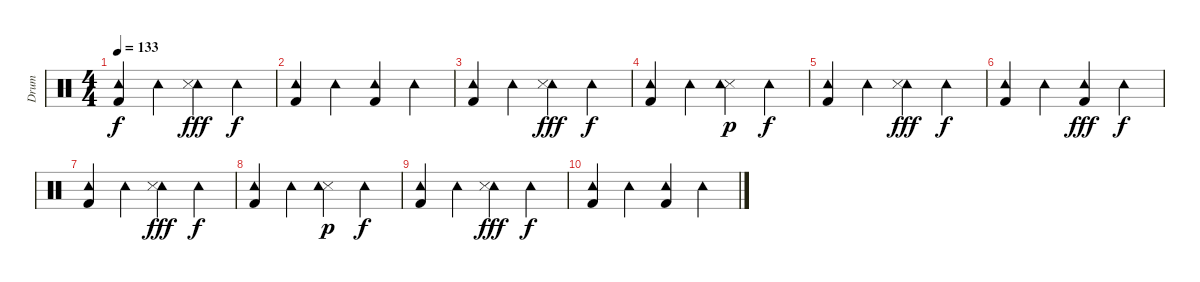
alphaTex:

\track ("Drum" "Drum") {instrument percussion}
\staff {score}
\articulation defaults
\ts (4 4)
\tempo 133
\clef neutral
\ks c
("Tambourine (hit)" "Kick (hit) 2").4{dy f} "Tambourine (hit)".4 ("Tambourine (hit)" "Snare (side stick) 3").4{dy fff} "Tambourine (hit)".4{dy f} |
("Tambourine (hit)" "Kick (hit) 2").4 "Tambourine (hit)".4 ("Kick (hit) 2" "Tambourine (hit)").4 "Tambourine (hit)".4 |
("Tambourine (hit)" "Kick (hit) 2").4 "Tambourine (hit)".4 ("Tambourine (hit)" "Snare (side stick) 3").4{dy fff} "Tambourine (hit)".4{dy f} |
("Tambourine (hit)" "Kick (hit) 2").4 "Tambourine (hit)".4 ("Snare (side stick) 3" "Tambourine (hit)").4{dy p} "Tambourine (hit)".4{dy f} |
("Tambourine (hit)" "Kick (hit) 2").4 "Tambourine (hit)".4 ("Tambourine (hit)" "Snare (side stick) 3").4{dy fff} "Tambourine (hit)".4{dy f} |
("Tambourine (hit)" "Kick (hit) 2").4 "Tambourine (hit)".4 ("Kick (hit) 2" "Tambourine (hit)").4{dy fff} "Tambourine (hit)".4{dy f} |
("Tambourine (hit)" "Kick (hit) 2").4 "Tambourine (hit)".4 ("Tambourine (hit)" "Snare (side stick) 3").4{dy fff} "Tambourine (hit)".4{dy f} |
("Tambourine (hit)" "Kick (hit) 2").4 "Tambourine (hit)".4 ("Snare (side stick) 3" "Tambourine (hit)").4{dy p} "Tambourine (hit)".4{dy f} |
("Tambourine (hit)" "Kick (hit) 2").4 "Tambourine (hit)".4 ("Tambourine (hit)" "Snare (side stick) 3").4{dy fff} "Tambourine (hit)".4{dy f} |
("Tambourine (hit)" "Kick (hit) 2").4 "Tambourine (hit)".4 ("Kick (hit) 2" "Tambourine (hit)").4 "Tambourine (hit)".4
